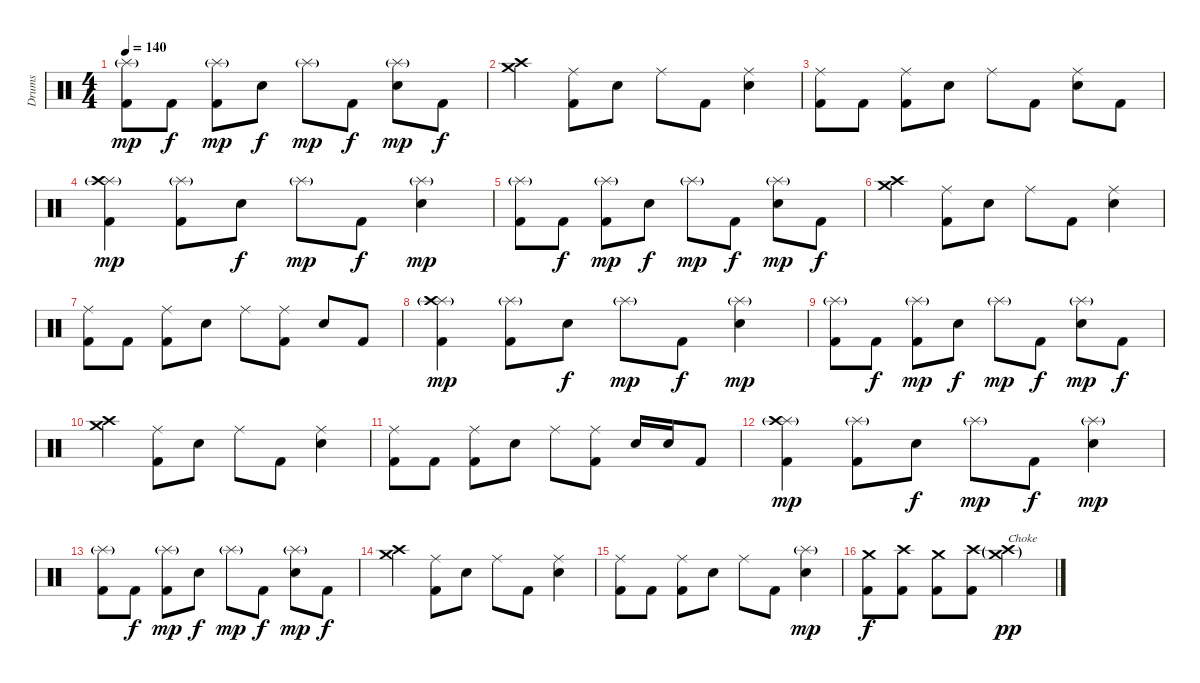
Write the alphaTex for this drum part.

\track ("Drums" "Drums") {instrument percussion}
\staff {score}
\articulation defaults
\ts (4 4)
\tempo 140
\clef neutral
\ks c
("Splash (hit)"{g} "Kick (hit) 2").8{dy mp} "Kick (hit) 2".8{dy f} ("Splash (hit)"{g} "Kick (hit) 2").8{dy mp} "Electric Snare (hit)".8{dy f} "Splash (hit)"{g}.8{dy mp} "Kick (hit) 2".8{dy f} ("Splash (hit)"{g} "Electric Snare (hit)").8{dy mp} "Kick (hit) 2".8{dy f} |
("Crash medium (hit)" "Crash high (hit)").4 ("Ride (middle)" "Kick (hit) 2").8 "Electric Snare (hit)".8 "Ride (middle)".8 "Kick (hit) 2".8 ("Ride (middle)" "Electric Snare (hit)").4 |
("Ride (middle)" "Kick (hit) 2").8 "Kick (hit) 2".8 ("Ride (middle)" "Kick (hit) 2").8 "Electric Snare (hit)".8 "Ride (middle)".8 "Kick (hit) 2".8 ("Ride (middle)" "Electric Snare (hit)").8 "Kick (hit) 2".8 |
("Splash (hit)"{g} "Crash high (hit)" "Kick (hit) 2").4{dy mp} ("Splash (hit)"{g} "Kick (hit) 2").8 "Electric Snare (hit)".8{dy f} "Splash (hit)"{g}.8{dy mp} "Kick (hit) 2".8{dy f} ("Splash (hit)"{g} "Electric Snare (hit)").4{dy mp} |
("Splash (hit)"{g} "Kick (hit) 2").8 "Kick (hit) 2".8{dy f} ("Splash (hit)"{g} "Kick (hit) 2").8{dy mp} "Electric Snare (hit)".8{dy f} "Splash (hit)"{g}.8{dy mp} "Kick (hit) 2".8{dy f} ("Splash (hit)"{g} "Electric Snare (hit)").8{dy mp} "Kick (hit) 2".8{dy f} |
("Crash medium (hit)" "Crash high (hit)").4 ("Ride (middle)" "Kick (hit) 2").8 "Electric Snare (hit)".8 "Ride (middle)".8 "Kick (hit) 2".8 ("Ride (middle)" "Electric Snare (hit)").4 |
("Ride (middle)" "Kick (hit) 2").8 "Kick (hit) 2".8 ("Ride (middle)" "Kick (hit) 2").8 "Electric Snare (hit)".8 "Ride (middle)".8 ("Ride (middle)" "Kick (hit) 2").8 "Electric Snare (hit)".8 "Kick (hit) 2".8 |
("Splash (hit)"{g} "Crash high (hit)" "Kick (hit) 2").4{dy mp} ("Splash (hit)"{g} "Kick (hit) 2").8 "Electric Snare (hit)".8{dy f} "Splash (hit)"{g}.8{dy mp} "Kick (hit) 2".8{dy f} ("Splash (hit)"{g} "Electric Snare (hit)").4{dy mp} |
("Splash (hit)"{g} "Kick (hit) 2").8 "Kick (hit) 2".8{dy f} ("Splash (hit)"{g} "Kick (hit) 2").8{dy mp} "Electric Snare (hit)".8{dy f} "Splash (hit)"{g}.8{dy mp} "Kick (hit) 2".8{dy f} ("Splash (hit)"{g} "Electric Snare (hit)").8{dy mp} "Kick (hit) 2".8{dy f} |
("Crash medium (hit)" "Crash high (hit)").4 ("Ride (middle)" "Kick (hit) 2").8 "Electric Snare (hit)".8 "Ride (middle)".8 "Kick (hit) 2".8 ("Ride (middle)" "Electric Snare (hit)").4 |
("Ride (middle)" "Kick (hit) 2").8 "Kick (hit) 2".8 ("Ride (middle)" "Kick (hit) 2").8 "Electric Snare (hit)".8 "Ride (middle)".8 ("Ride (middle)" "Kick (hit) 2").8 "Electric Snare (hit)".16 "Electric Snare (hit)".16 "Kick (hit) 2".8 |
("Splash (hit)"{g} "Crash high (hit)" "Kick (hit) 2").4{dy mp} ("Splash (hit)"{g} "Kick (hit) 2").8 "Electric Snare (hit)".8{dy f} "Splash (hit)"{g}.8{dy mp} "Kick (hit) 2".8{dy f} ("Splash (hit)"{g} "Electric Snare (hit)").4{dy mp} |
("Splash (hit)"{g} "Kick (hit) 2").8 "Kick (hit) 2".8{dy f} ("Splash (hit)"{g} "Kick (hit) 2").8{dy mp} "Electric Snare (hit)".8{dy f} "Splash (hit)"{g}.8{dy mp} "Kick (hit) 2".8{dy f} ("Splash (hit)"{g} "Electric Snare (hit)").8{dy mp} "Kick (hit) 2".8{dy f} |
("Crash medium (hit)" "Crash high (hit)").4 ("Ride (middle)" "Kick (hit) 2").8 "Electric Snare (hit)".8 "Ride (middle)".8 "Kick (hit) 2".8 ("Ride (middle)" "Electric Snare (hit)").4 |
("Ride (middle)" "Kick (hit) 2").8 "Kick (hit) 2".8 ("Ride (middle)" "Kick (hit) 2").8 "Electric Snare (hit)".8 "Ride (middle)".8 "Kick (hit) 2".8 ("Splash (hit)"{g} "Electric Snare (hit)").4{dy mp} |
("Crash medium (hit)" "Kick (hit) 2").8{dy f} ("Crash high (hit)" "Kick (hit) 2").8 ("Crash medium (hit)" "Kick (hit) 2").8 ("Crash high (hit)" "Kick (hit) 2").8 ("Crash medium (hit)"{g} "Crash high (hit)"{g}).2{txt "Choke" dy pp}
